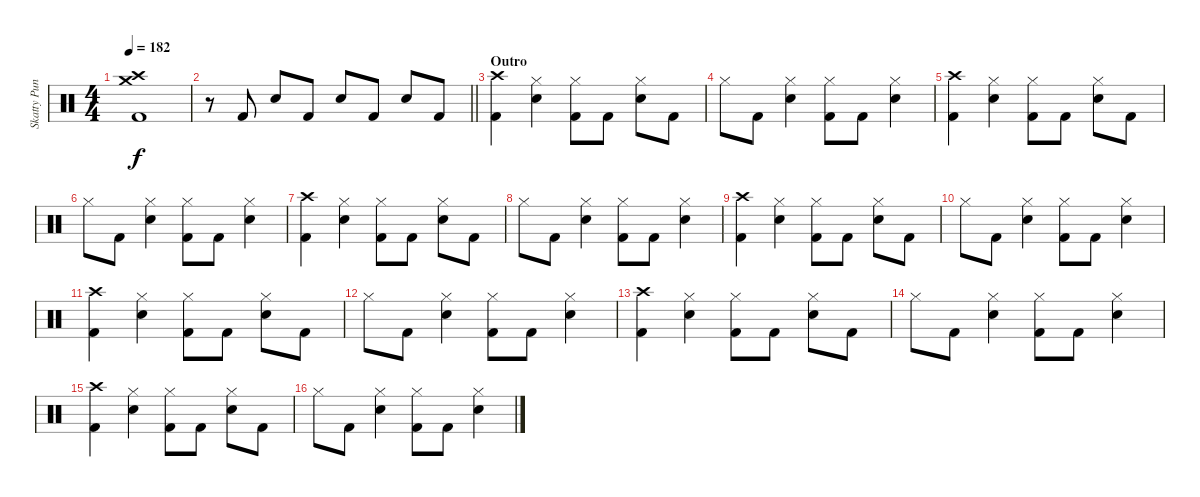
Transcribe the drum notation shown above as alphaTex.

\track ("Skatty Punk Rock" "Skatty Pun") {instrument percussion}
\staff {score}
\articulation defaults
\ts (4 4)
\tempo 182
\clef neutral
\ks c
("Kick (hit) 2" "Crash medium (hit)" "Crash high (hit)").1{dy f} |
\barLineRight lightlight
r.8 "Kick (hit) 2".8 "Snare (hit) 2".8 "Kick (hit) 2".8 "Snare (hit) 2".8 "Kick (hit) 2".8 "Snare (hit) 2".8 "Kick (hit) 2".8 |
\section ("" "Outro")
("Kick (hit) 2" "Crash high (hit)").4 ("Snare (hit) 2" "Hi-Hat (closed)").4 ("Kick (hit) 2" "Hi-Hat (closed)").8 "Kick (hit) 2".8 ("Snare (hit) 2" "Hi-Hat (closed)").8 "Kick (hit) 2".8 |
"Hi-Hat (closed)".8 "Kick (hit) 2".8 ("Snare (hit) 2" "Hi-Hat (closed)").4 ("Kick (hit) 2" "Hi-Hat (closed)").8 "Kick (hit) 2".8 ("Snare (hit) 2" "Hi-Hat (closed)").4 |
("Kick (hit) 2" "Crash high (hit)").4 ("Snare (hit) 2" "Hi-Hat (closed)").4 ("Kick (hit) 2" "Hi-Hat (closed)").8 "Kick (hit) 2".8 ("Snare (hit) 2" "Hi-Hat (closed)").8 "Kick (hit) 2".8 |
"Hi-Hat (closed)".8 "Kick (hit) 2".8 ("Snare (hit) 2" "Hi-Hat (closed)").4 ("Kick (hit) 2" "Hi-Hat (closed)").8 "Kick (hit) 2".8 ("Snare (hit) 2" "Hi-Hat (closed)").4 |
("Kick (hit) 2" "Crash high (hit)").4 ("Snare (hit) 2" "Hi-Hat (closed)").4 ("Kick (hit) 2" "Hi-Hat (closed)").8 "Kick (hit) 2".8 ("Snare (hit) 2" "Hi-Hat (closed)").8 "Kick (hit) 2".8 |
"Hi-Hat (closed)".8 "Kick (hit) 2".8 ("Snare (hit) 2" "Hi-Hat (closed)").4 ("Kick (hit) 2" "Hi-Hat (closed)").8 "Kick (hit) 2".8 ("Snare (hit) 2" "Hi-Hat (closed)").4 |
("Kick (hit) 2" "Crash high (hit)").4 ("Snare (hit) 2" "Hi-Hat (closed)").4 ("Kick (hit) 2" "Hi-Hat (closed)").8 "Kick (hit) 2".8 ("Snare (hit) 2" "Hi-Hat (closed)").8 "Kick (hit) 2".8 |
"Hi-Hat (closed)".8 "Kick (hit) 2".8 ("Snare (hit) 2" "Hi-Hat (closed)").4 ("Kick (hit) 2" "Hi-Hat (closed)").8 "Kick (hit) 2".8 ("Snare (hit) 2" "Hi-Hat (closed)").4 |
("Kick (hit) 2" "Crash high (hit)").4 ("Snare (hit) 2" "Hi-Hat (closed)").4 ("Kick (hit) 2" "Hi-Hat (closed)").8 "Kick (hit) 2".8 ("Snare (hit) 2" "Hi-Hat (closed)").8 "Kick (hit) 2".8 |
"Hi-Hat (closed)".8 "Kick (hit) 2".8 ("Snare (hit) 2" "Hi-Hat (closed)").4 ("Kick (hit) 2" "Hi-Hat (closed)").8 "Kick (hit) 2".8 ("Snare (hit) 2" "Hi-Hat (closed)").4 |
("Kick (hit) 2" "Crash high (hit)").4 ("Snare (hit) 2" "Hi-Hat (closed)").4 ("Kick (hit) 2" "Hi-Hat (closed)").8 "Kick (hit) 2".8 ("Snare (hit) 2" "Hi-Hat (closed)").8 "Kick (hit) 2".8 |
"Hi-Hat (closed)".8 "Kick (hit) 2".8 ("Snare (hit) 2" "Hi-Hat (closed)").4 ("Kick (hit) 2" "Hi-Hat (closed)").8 "Kick (hit) 2".8 ("Snare (hit) 2" "Hi-Hat (closed)").4 |
("Kick (hit) 2" "Crash high (hit)").4 ("Snare (hit) 2" "Hi-Hat (closed)").4 ("Kick (hit) 2" "Hi-Hat (closed)").8 "Kick (hit) 2".8 ("Snare (hit) 2" "Hi-Hat (closed)").8 "Kick (hit) 2".8 |
"Hi-Hat (closed)".8 "Kick (hit) 2".8 ("Snare (hit) 2" "Hi-Hat (closed)").4 ("Kick (hit) 2" "Hi-Hat (closed)").8 "Kick (hit) 2".8 ("Snare (hit) 2" "Hi-Hat (closed)").4
